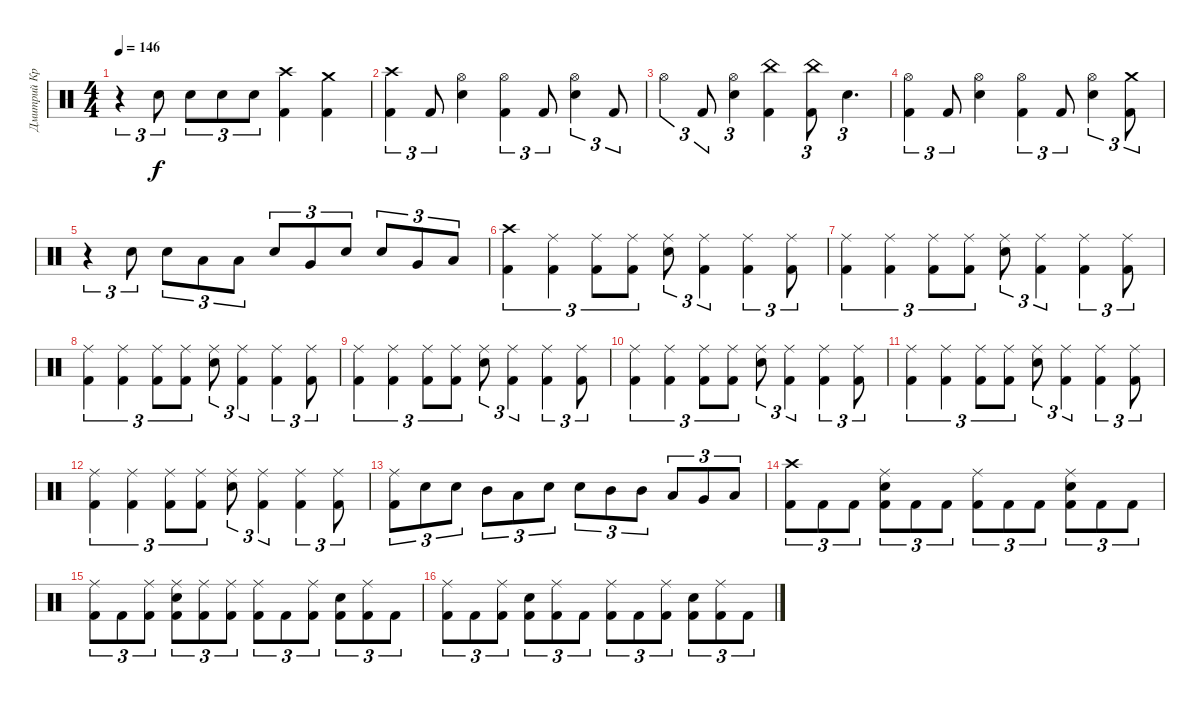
\track ("Дмитрий Кривенков" "Дмитрий Кр") {instrument percussion}
\staff {score}
\articulation defaults
\ts (4 4)
\tempo 146
\clef neutral
\ks c
r.4{tu (3 2) dy f} "Electric Snare (hit)".8{tu (3 2)} "Electric Snare (hit)".8{tu (3 2)} "Electric Snare (hit)".8{tu (3 2)} "Electric Snare (hit)".8{tu (3 2)} ("Crash high (hit)" "Kick (hit) 2").4 ("Crash medium (hit)" "Kick (hit) 2").4 |
("Crash high (hit)" "Kick (hit) 2").4{tu (3 2)} "Kick (hit) 2".8{tu (3 2)} ("Hi-Hat (open)" "Electric Snare (hit)").4 ("Hi-Hat (open)" "Kick (hit) 2").4{tu (3 2)} "Kick (hit) 2".8{tu (3 2)} ("Hi-Hat (open)" "Electric Snare (hit)").4{tu (3 2)} "Kick (hit) 2".8{tu (3 2)} |
"Hi-Hat (open)".4{tu (3 2)} "Kick (hit) 2".8{tu (3 2)} ("Hi-Hat (open)" "Electric Snare (hit)").4{tu (3 2)} ("China (hit)" "Kick (hit) 2").4 ("China (hit)" "Kick (hit) 2").8{tu (3 2)} "Electric Snare (hit)".4{d tu (3 2)} |
("Hi-Hat (open)" "Kick (hit) 2").4{tu (3 2)} "Kick (hit) 2".8{tu (3 2)} ("Hi-Hat (open)" "Electric Snare (hit)").4 ("Hi-Hat (open)" "Kick (hit) 2").4{tu (3 2)} "Kick (hit) 2".8{tu (3 2)} ("Hi-Hat (open)" "Electric Snare (hit)").4{tu (3 2)} ("Crash medium (hit)" "Kick (hit) 2").8{tu (3 2)} |
r.4{tu (3 2)} "Electric Snare (hit)".8{tu (3 2)} "Electric Snare (hit)".8{tu (3 2)} "Low Tom (hit)".8{tu (3 2)} "Low Tom (hit)".8{tu (3 2)} "Electric Snare (hit)".8{tu (3 2)} "Very Low Tom (hit)".8{tu (3 2)} "Electric Snare (hit)".8{tu (3 2)} "Electric Snare (hit)".8{tu (3 2)} "Very Low Tom (hit)".8{tu (3 2)} "Low Floor Tom (hit)".8{tu (3 2)} |
("Crash high (hit)" "Kick (hit) 2").4{tu (3 2)} ("Ride (middle)" "Kick (hit) 2").4{tu (3 2)} ("Ride (middle)" "Kick (hit) 2").8{tu (3 2)} ("Ride (middle)" "Kick (hit) 2").8{tu (3 2)} ("Ride (middle)" "Electric Snare (hit)").8{tu (3 2)} ("Ride (middle)" "Kick (hit) 2").4{tu (3 2)} ("Ride (middle)" "Kick (hit) 2").4{tu (3 2)} ("Ride (middle)" "Kick (hit) 2").8{tu (3 2)} |
("Ride (middle)" "Kick (hit) 2").4{tu (3 2)} ("Ride (middle)" "Kick (hit) 2").4{tu (3 2)} ("Ride (middle)" "Kick (hit) 2").8{tu (3 2)} ("Ride (middle)" "Kick (hit) 2").8{tu (3 2)} ("Ride (middle)" "Electric Snare (hit)").8{tu (3 2)} ("Ride (middle)" "Kick (hit) 2").4{tu (3 2)} ("Ride (middle)" "Kick (hit) 2").4{tu (3 2)} ("Ride (middle)" "Kick (hit) 2").8{tu (3 2)} |
("Ride (middle)" "Kick (hit) 2").4{tu (3 2)} ("Ride (middle)" "Kick (hit) 2").4{tu (3 2)} ("Ride (middle)" "Kick (hit) 2").8{tu (3 2)} ("Ride (middle)" "Kick (hit) 2").8{tu (3 2)} ("Ride (middle)" "Electric Snare (hit)").8{tu (3 2)} ("Ride (middle)" "Kick (hit) 2").4{tu (3 2)} ("Ride (middle)" "Kick (hit) 2").4{tu (3 2)} ("Ride (middle)" "Kick (hit) 2").8{tu (3 2)} |
("Ride (middle)" "Kick (hit) 2").4{tu (3 2)} ("Ride (middle)" "Kick (hit) 2").4{tu (3 2)} ("Ride (middle)" "Kick (hit) 2").8{tu (3 2)} ("Ride (middle)" "Kick (hit) 2").8{tu (3 2)} ("Ride (middle)" "Electric Snare (hit)").8{tu (3 2)} ("Ride (middle)" "Kick (hit) 2").4{tu (3 2)} ("Ride (middle)" "Kick (hit) 2").4{tu (3 2)} ("Ride (middle)" "Kick (hit) 2").8{tu (3 2)} |
("Ride (middle)" "Kick (hit) 2").4{tu (3 2)} ("Ride (middle)" "Kick (hit) 2").4{tu (3 2)} ("Ride (middle)" "Kick (hit) 2").8{tu (3 2)} ("Ride (middle)" "Kick (hit) 2").8{tu (3 2)} ("Ride (middle)" "Electric Snare (hit)").8{tu (3 2)} ("Ride (middle)" "Kick (hit) 2").4{tu (3 2)} ("Ride (middle)" "Kick (hit) 2").4{tu (3 2)} ("Ride (middle)" "Kick (hit) 2").8{tu (3 2)} |
("Ride (middle)" "Kick (hit) 2").4{tu (3 2)} ("Ride (middle)" "Kick (hit) 2").4{tu (3 2)} ("Ride (middle)" "Kick (hit) 2").8{tu (3 2)} ("Ride (middle)" "Kick (hit) 2").8{tu (3 2)} ("Ride (middle)" "Electric Snare (hit)").8{tu (3 2)} ("Ride (middle)" "Kick (hit) 2").4{tu (3 2)} ("Ride (middle)" "Kick (hit) 2").4{tu (3 2)} ("Ride (middle)" "Kick (hit) 2").8{tu (3 2)} |
("Ride (middle)" "Kick (hit) 2").4{tu (3 2)} ("Ride (middle)" "Kick (hit) 2").4{tu (3 2)} ("Ride (middle)" "Kick (hit) 2").8{tu (3 2)} ("Ride (middle)" "Kick (hit) 2").8{tu (3 2)} ("Ride (middle)" "Electric Snare (hit)").8{tu (3 2)} ("Ride (middle)" "Kick (hit) 2").4{tu (3 2)} ("Ride (middle)" "Kick (hit) 2").4{tu (3 2)} ("Ride (middle)" "Kick (hit) 2").8{tu (3 2)} |
("Ride (middle)" "Kick (hit) 2").8{tu (3 2)} "Electric Snare (hit)".8{tu (3 2)} "Electric Snare (hit)".8{tu (3 2)} "Mid Tom (hit)".8{tu (3 2)} "Low Tom (hit)".8{tu (3 2)} "Electric Snare (hit)".8{tu (3 2)} "Electric Snare (hit)".8{tu (3 2)} "Mid Tom (hit)".8{tu (3 2)} "Mid Tom (hit)".8{tu (3 2)} "Low Tom (hit)".8{tu (3 2)} "Very Low Tom (hit)".8{tu (3 2)} "Low Floor Tom (hit)".8{tu (3 2)} |
("Crash high (hit)" "Kick (hit) 2").8{tu (3 2)} "Kick (hit) 2".8{tu (3 2)} "Kick (hit) 2".8{tu (3 2)} ("Ride (middle)" "Electric Snare (hit)" "Kick (hit) 2").8{tu (3 2)} "Kick (hit) 2".8{tu (3 2)} "Kick (hit) 2".8{tu (3 2)} ("Ride (middle)" "Kick (hit) 2").8{tu (3 2)} "Kick (hit) 2".8{tu (3 2)} "Kick (hit) 2".8{tu (3 2)} ("Ride (middle)" "Electric Snare (hit)" "Kick (hit) 2").8{tu (3 2)} "Kick (hit) 2".8{tu (3 2)} "Kick (hit) 2".8{tu (3 2)} |
("Ride (middle)" "Kick (hit) 2").8{tu (3 2)} "Kick (hit) 2".8{tu (3 2)} ("Ride (middle)" "Kick (hit) 2").8{tu (3 2)} ("Ride (middle)" "Electric Snare (hit)" "Kick (hit) 2").8{tu (3 2)} ("Ride (middle)" "Kick (hit) 2").8{tu (3 2)} ("Ride (middle)" "Kick (hit) 2").8{tu (3 2)} ("Ride (middle)" "Kick (hit) 2").8{tu (3 2)} "Kick (hit) 2".8{tu (3 2)} ("Ride (middle)" "Kick (hit) 2").8{tu (3 2)} ("Electric Snare (hit)" "Kick (hit) 2").8{tu (3 2)} ("Ride (middle)" "Kick (hit) 2").8{tu (3 2)} "Kick (hit) 2".8{tu (3 2)} |
("Ride (middle)" "Kick (hit) 2").8{tu (3 2)} "Kick (hit) 2".8{tu (3 2)} ("Ride (middle)" "Kick (hit) 2").8{tu (3 2)} ("Electric Snare (hit)" "Kick (hit) 2").8{tu (3 2)} ("Ride (middle)" "Kick (hit) 2").8{tu (3 2)} "Kick (hit) 2".8{tu (3 2)} ("Ride (middle)" "Kick (hit) 2").8{tu (3 2)} "Kick (hit) 2".8{tu (3 2)} ("Ride (middle)" "Kick (hit) 2").8{tu (3 2)} ("Electric Snare (hit)" "Kick (hit) 2").8{tu (3 2)} ("Ride (middle)" "Kick (hit) 2").8{tu (3 2)} "Kick (hit) 2".8{tu (3 2)}
